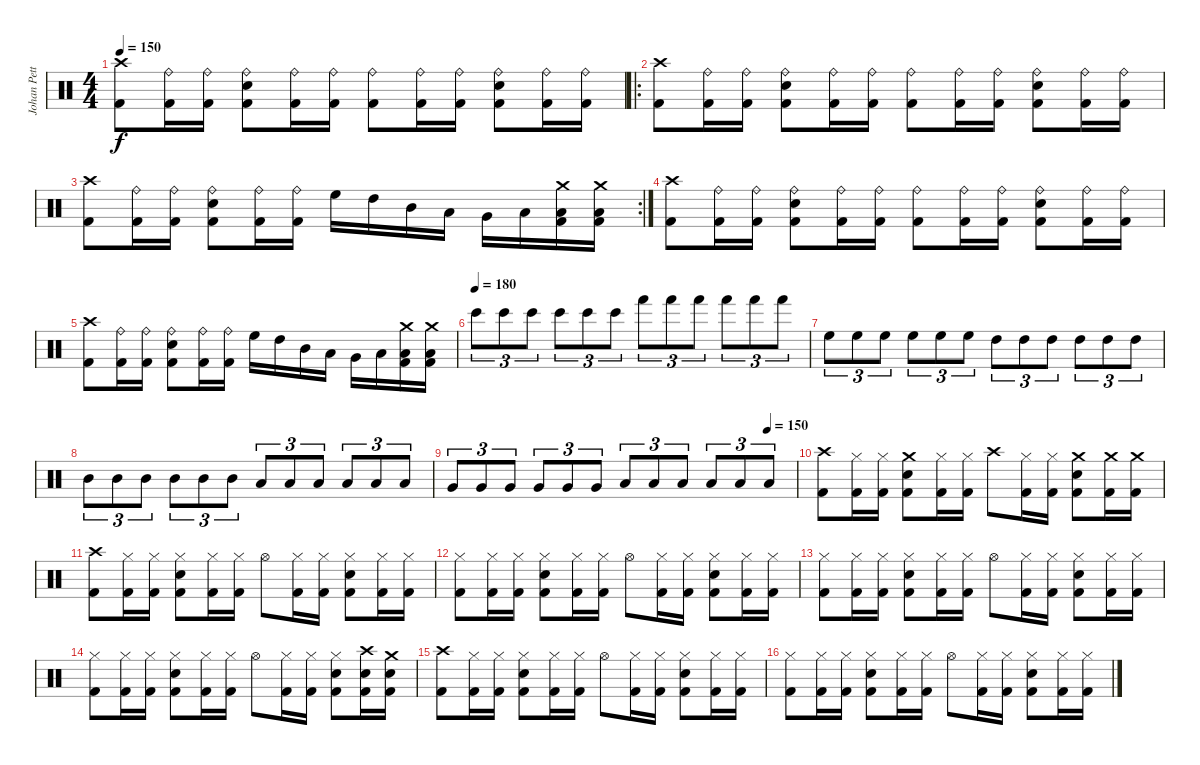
\track ("Johan Petterson" "Johan Pett") {instrument percussion}
\staff {score}
\articulation defaults
\ts (4 4)
\tempo 150
\clef neutral
\ks c
("Crash high (hit)" "Kick (hit) 2").8{dy f} ("Ride (bell)" "Kick (hit) 2").16 ("Ride (bell)" "Kick (hit) 2").16 ("Ride (bell)" "Snare (hit) 2" "Kick (hit) 2").8 ("Ride (bell)" "Kick (hit) 2").16 ("Ride (bell)" "Kick (hit) 2").16 ("Ride (bell)" "Kick (hit) 2").8 ("Ride (bell)" "Kick (hit) 2").16 ("Ride (bell)" "Kick (hit) 2").16 ("Ride (bell)" "Snare (hit) 2" "Kick (hit) 2").8 ("Ride (bell)" "Kick (hit) 2").16 ("Ride (bell)" "Kick (hit) 2").16 |
\ro
("Crash high (hit)" "Kick (hit) 2").8 ("Ride (bell)" "Kick (hit) 2").16 ("Ride (bell)" "Kick (hit) 2").16 ("Ride (bell)" "Snare (hit) 2" "Kick (hit) 2").8 ("Ride (bell)" "Kick (hit) 2").16 ("Ride (bell)" "Kick (hit) 2").16 ("Ride (bell)" "Kick (hit) 2").8 ("Ride (bell)" "Kick (hit) 2").16 ("Ride (bell)" "Kick (hit) 2").16 ("Ride (bell)" "Snare (hit) 2" "Kick (hit) 2").8 ("Ride (bell)" "Kick (hit) 2").16 ("Ride (bell)" "Kick (hit) 2").16 |
\rc 2
("Crash high (hit)" "Kick (hit) 2").8 ("Ride (bell)" "Kick (hit) 2").16 ("Ride (bell)" "Kick (hit) 2").16 ("Ride (bell)" "Snare (hit) 2" "Kick (hit) 2").8 ("Ride (bell)" "Kick (hit) 2").16 ("Ride (bell)" "Kick (hit) 2").16 "High Floor Tom (hit)".16 "High Tom (hit)".16 "Mid Tom (hit)".16 "Low Tom (hit)".16 "Very Low Tom (hit)".16 "Low Floor Tom (hit)".16 ("Crash medium (hit)" "Low Floor Tom (hit)" "Kick (hit) 2").16 ("Crash medium (hit)" "Low Floor Tom (hit)" "Kick (hit) 2").16 |
("Crash high (hit)" "Kick (hit) 2").8 ("Ride (bell)" "Kick (hit) 2").16 ("Ride (bell)" "Kick (hit) 2").16 ("Ride (bell)" "Snare (hit) 2" "Kick (hit) 2").8 ("Ride (bell)" "Kick (hit) 2").16 ("Ride (bell)" "Kick (hit) 2").16 ("Ride (bell)" "Kick (hit) 2").8 ("Ride (bell)" "Kick (hit) 2").16 ("Ride (bell)" "Kick (hit) 2").16 ("Ride (bell)" "Snare (hit) 2" "Kick (hit) 2").8 ("Ride (bell)" "Kick (hit) 2").16 ("Ride (bell)" "Kick (hit) 2").16 |
("Crash high (hit)" "Kick (hit) 2").8 ("Ride (bell)" "Kick (hit) 2").16 ("Ride (bell)" "Kick (hit) 2").16 ("Ride (bell)" "Snare (hit) 2" "Kick (hit) 2").8 ("Ride (bell)" "Kick (hit) 2").16 ("Ride (bell)" "Kick (hit) 2").16 "High Floor Tom (hit)".16 "High Tom (hit)".16 "Mid Tom (hit)".16 "Low Tom (hit)".16 "Very Low Tom (hit)".16 "Low Floor Tom (hit)".16 ("Crash medium (hit)" "Low Floor Tom (hit)" "Kick (hit) 2").16 ("Crash medium (hit)" "Low Floor Tom (hit)" "Kick (hit) 2").16 |
\tempo (180)
"Bongo High (hit)".8{tu (3 2)} "Bongo High (hit)".8{tu (3 2)} "Bongo High (hit)".8{tu (3 2)} "Bongo High (hit)".8{tu (3 2)} "Bongo High (hit)".8{tu (3 2)} "Bongo High (hit)".8{tu (3 2)} "Hand (hit)".8{tu (3 2)} "Hand (hit)".8{tu (3 2)} "Hand (hit)".8{tu (3 2)} "Hand (hit)".8{tu (3 2)} "Hand (hit)".8{tu (3 2)} "Hand (hit)".8{tu (3 2)} |
"High Floor Tom (hit)".8{tu (3 2)} "High Floor Tom (hit)".8{tu (3 2)} "High Floor Tom (hit)".8{tu (3 2)} "High Floor Tom (hit)".8{tu (3 2)} "High Floor Tom (hit)".8{tu (3 2)} "High Floor Tom (hit)".8{tu (3 2)} "High Tom (hit)".8{tu (3 2)} "High Tom (hit)".8{tu (3 2)} "High Tom (hit)".8{tu (3 2)} "High Tom (hit)".8{tu (3 2)} "High Tom (hit)".8{tu (3 2)} "High Tom (hit)".8{tu (3 2)} |
"Mid Tom (hit)".8{tu (3 2)} "Mid Tom (hit)".8{tu (3 2)} "Mid Tom (hit)".8{tu (3 2)} "Mid Tom (hit)".8{tu (3 2)} "Mid Tom (hit)".8{tu (3 2)} "Mid Tom (hit)".8{tu (3 2)} "Low Tom (hit)".8{tu (3 2)} "Low Tom (hit)".8{tu (3 2)} "Low Tom (hit)".8{tu (3 2)} "Low Tom (hit)".8{tu (3 2)} "Low Tom (hit)".8{tu (3 2)} "Low Tom (hit)".8{tu (3 2)} |
\tempo (150 0.9166666666666666)
"Very Low Tom (hit)".8{tu (3 2)} "Very Low Tom (hit)".8{tu (3 2)} "Very Low Tom (hit)".8{tu (3 2)} "Very Low Tom (hit)".8{tu (3 2)} "Very Low Tom (hit)".8{tu (3 2)} "Very Low Tom (hit)".8{tu (3 2)} "Low Floor Tom (hit)".8{tu (3 2)} "Low Floor Tom (hit)".8{tu (3 2)} "Low Floor Tom (hit)".8{tu (3 2)} "Low Floor Tom (hit)".8{tu (3 2)} "Low Floor Tom (hit)".8{tu (3 2)} "Low Floor Tom (hit)".8{tu (3 2)} |
("Crash high (hit)" "Kick (hit) 2").8 ("Hi-Hat (closed)" "Kick (hit) 2").16 ("Hi-Hat (closed)" "Kick (hit) 2").16 ("Crash medium (hit)" "Snare (hit) 2" "Kick (hit) 2").8 ("Hi-Hat (closed)" "Kick (hit) 2").16 ("Hi-Hat (closed)" "Kick (hit) 2").16 "Crash high (hit)".8 ("Hi-Hat (closed)" "Kick (hit) 2").16 ("Hi-Hat (closed)" "Kick (hit) 2").16 ("Crash medium (hit)" "Snare (hit) 2" "Kick (hit) 2").8 ("Crash medium (hit)" "Kick (hit) 2").16 ("Crash medium (hit)" "Kick (hit) 2").16 |
("Crash high (hit)" "Kick (hit) 2").8 ("Hi-Hat (closed)" "Kick (hit) 2").16 ("Hi-Hat (closed)" "Kick (hit) 2").16 ("Hi-Hat (closed)" "Snare (hit) 2" "Kick (hit) 2").8 ("Hi-Hat (closed)" "Kick (hit) 2").16 ("Hi-Hat (closed)" "Kick (hit) 2").16 "Hi-Hat (open)".8 ("Hi-Hat (closed)" "Kick (hit) 2").16 ("Hi-Hat (closed)" "Kick (hit) 2").16 ("Hi-Hat (closed)" "Snare (hit) 2" "Kick (hit) 2").8 ("Hi-Hat (closed)" "Kick (hit) 2").16 ("Hi-Hat (closed)" "Kick (hit) 2").16 |
("Hi-Hat (closed)" "Kick (hit) 2").8 ("Hi-Hat (closed)" "Kick (hit) 2").16 ("Hi-Hat (closed)" "Kick (hit) 2").16 ("Hi-Hat (closed)" "Snare (hit) 2" "Kick (hit) 2").8 ("Hi-Hat (closed)" "Kick (hit) 2").16 ("Hi-Hat (closed)" "Kick (hit) 2").16 "Hi-Hat (open)".8 ("Hi-Hat (closed)" "Kick (hit) 2").16 ("Hi-Hat (closed)" "Kick (hit) 2").16 ("Hi-Hat (closed)" "Snare (hit) 2" "Kick (hit) 2").8 ("Hi-Hat (closed)" "Kick (hit) 2").16 ("Hi-Hat (closed)" "Kick (hit) 2").16 |
("Hi-Hat (closed)" "Kick (hit) 2").8 ("Hi-Hat (closed)" "Kick (hit) 2").16 ("Hi-Hat (closed)" "Kick (hit) 2").16 ("Hi-Hat (closed)" "Snare (hit) 2" "Kick (hit) 2").8 ("Hi-Hat (closed)" "Kick (hit) 2").16 ("Hi-Hat (closed)" "Kick (hit) 2").16 "Hi-Hat (open)".8 ("Hi-Hat (closed)" "Kick (hit) 2").16 ("Hi-Hat (closed)" "Kick (hit) 2").16 ("Hi-Hat (closed)" "Snare (hit) 2" "Kick (hit) 2").8 ("Hi-Hat (closed)" "Kick (hit) 2").16 ("Hi-Hat (closed)" "Kick (hit) 2").16 |
("Hi-Hat (closed)" "Kick (hit) 2").8 ("Hi-Hat (closed)" "Kick (hit) 2").16 ("Hi-Hat (closed)" "Kick (hit) 2").16 ("Hi-Hat (closed)" "Snare (hit) 2" "Kick (hit) 2").8 ("Hi-Hat (closed)" "Kick (hit) 2").16 ("Hi-Hat (closed)" "Kick (hit) 2").16 "Hi-Hat (open)".8 ("Hi-Hat (closed)" "Kick (hit) 2").16 ("Hi-Hat (closed)" "Kick (hit) 2").16 ("Hi-Hat (closed)" "Snare (hit) 2" "Kick (hit) 2").8 ("Crash high (hit)" "Snare (hit) 2" "Kick (hit) 2").16 ("Crash medium (hit)" "Snare (hit) 2" "Kick (hit) 2").16 |
("Crash high (hit)" "Kick (hit) 2").8 ("Hi-Hat (closed)" "Kick (hit) 2").16 ("Hi-Hat (closed)" "Kick (hit) 2").16 ("Hi-Hat (closed)" "Snare (hit) 2" "Kick (hit) 2").8 ("Hi-Hat (closed)" "Kick (hit) 2").16 ("Hi-Hat (closed)" "Kick (hit) 2").16 "Hi-Hat (open)".8 ("Hi-Hat (closed)" "Kick (hit) 2").16 ("Hi-Hat (closed)" "Kick (hit) 2").16 ("Hi-Hat (closed)" "Snare (hit) 2" "Kick (hit) 2").8 ("Hi-Hat (closed)" "Kick (hit) 2").16 ("Hi-Hat (closed)" "Kick (hit) 2").16 |
("Hi-Hat (closed)" "Kick (hit) 2").8 ("Hi-Hat (closed)" "Kick (hit) 2").16 ("Hi-Hat (closed)" "Kick (hit) 2").16 ("Hi-Hat (closed)" "Snare (hit) 2" "Kick (hit) 2").8 ("Hi-Hat (closed)" "Kick (hit) 2").16 ("Hi-Hat (closed)" "Kick (hit) 2").16 "Hi-Hat (open)".8 ("Hi-Hat (closed)" "Kick (hit) 2").16 ("Hi-Hat (closed)" "Kick (hit) 2").16 ("Hi-Hat (closed)" "Snare (hit) 2" "Kick (hit) 2").8 ("Hi-Hat (closed)" "Kick (hit) 2").16 ("Hi-Hat (closed)" "Kick (hit) 2").16
